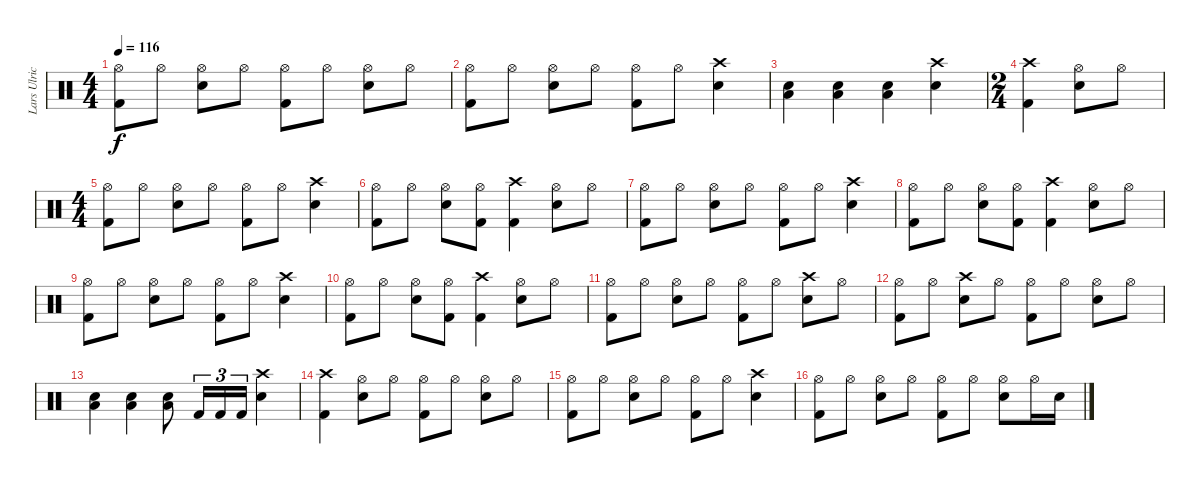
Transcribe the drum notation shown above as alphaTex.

\track ("Lars Ulrich" "Lars Ulric") {instrument percussion}
\staff {score}
\articulation defaults
\ts (4 4)
\tempo 116
\clef neutral
\ks c
("Hi-Hat (open)" "Kick (hit) 2").8{dy f} "Hi-Hat (open)".8 ("Hi-Hat (open)" "Electric Snare (hit)").8 "Hi-Hat (open)".8 ("Hi-Hat (open)" "Kick (hit) 2").8 "Hi-Hat (open)".8 ("Hi-Hat (open)" "Electric Snare (hit)").8 "Hi-Hat (open)".8 |
("Hi-Hat (open)" "Kick (hit) 2").8 "Hi-Hat (open)".8 ("Hi-Hat (open)" "Electric Snare (hit)").8 "Hi-Hat (open)".8 ("Hi-Hat (open)" "Kick (hit) 2").8 "Hi-Hat (open)".8 ("Crash high (hit)" "Electric Snare (hit)").4 |
("Electric Snare (hit)" "Low Floor Tom (hit)").4 ("Electric Snare (hit)" "Low Floor Tom (hit)").4 ("Electric Snare (hit)" "Low Floor Tom (hit)").4 ("Crash high (hit)" "Electric Snare (hit)").4 |
\ts (2 4)
("Crash high (hit)" "Kick (hit) 2").4 ("Hi-Hat (open)" "Electric Snare (hit)").8 "Hi-Hat (open)".8 |
\ts (4 4)
("Hi-Hat (open)" "Kick (hit) 2").8 "Hi-Hat (open)".8 ("Hi-Hat (open)" "Electric Snare (hit)").8 "Hi-Hat (open)".8 ("Hi-Hat (open)" "Kick (hit) 2").8 "Hi-Hat (open)".8 ("Crash high (hit)" "Electric Snare (hit)").4 |
("Hi-Hat (open)" "Kick (hit) 2").8 "Hi-Hat (open)".8 ("Hi-Hat (open)" "Electric Snare (hit)").8 ("Hi-Hat (open)" "Kick (hit) 2").8 ("Crash high (hit)" "Kick (hit) 2").4 ("Hi-Hat (open)" "Electric Snare (hit)").8 "Hi-Hat (open)".8 |
("Hi-Hat (open)" "Kick (hit) 2").8 "Hi-Hat (open)".8 ("Hi-Hat (open)" "Electric Snare (hit)").8 "Hi-Hat (open)".8 ("Hi-Hat (open)" "Kick (hit) 2").8 "Hi-Hat (open)".8 ("Crash high (hit)" "Electric Snare (hit)").4 |
("Hi-Hat (open)" "Kick (hit) 2").8 "Hi-Hat (open)".8 ("Hi-Hat (open)" "Electric Snare (hit)").8 ("Hi-Hat (open)" "Kick (hit) 2").8 ("Crash high (hit)" "Kick (hit) 2").4 ("Hi-Hat (open)" "Electric Snare (hit)").8 "Hi-Hat (open)".8 |
("Hi-Hat (open)" "Kick (hit) 2").8 "Hi-Hat (open)".8 ("Hi-Hat (open)" "Electric Snare (hit)").8 "Hi-Hat (open)".8 ("Hi-Hat (open)" "Kick (hit) 2").8 "Hi-Hat (open)".8 ("Crash high (hit)" "Electric Snare (hit)").4 |
("Hi-Hat (open)" "Kick (hit) 2").8 "Hi-Hat (open)".8 ("Hi-Hat (open)" "Electric Snare (hit)").8 ("Hi-Hat (open)" "Kick (hit) 2").8 ("Crash high (hit)" "Kick (hit) 2").4 ("Hi-Hat (open)" "Electric Snare (hit)").8 "Hi-Hat (open)".8 |
("Hi-Hat (open)" "Kick (hit) 2").8 "Hi-Hat (open)".8 ("Hi-Hat (open)" "Electric Snare (hit)").8 "Hi-Hat (open)".8 ("Hi-Hat (open)" "Kick (hit) 2").8 "Hi-Hat (open)".8 ("Crash high (hit)" "Electric Snare (hit)").8 "Hi-Hat (open)".8 |
("Hi-Hat (open)" "Kick (hit) 2").8 "Hi-Hat (open)".8 ("Crash high (hit)" "Electric Snare (hit)").8 "Hi-Hat (open)".8 ("Hi-Hat (open)" "Kick (hit) 2").8 "Hi-Hat (open)".8 ("Hi-Hat (open)" "Electric Snare (hit)").8 "Hi-Hat (open)".8 |
("Electric Snare (hit)" "Low Floor Tom (hit)").4 ("Electric Snare (hit)" "Low Floor Tom (hit)").4 ("Electric Snare (hit)" "Low Floor Tom (hit)").8 "Kick (hit) 2".16{tu (3 2)} "Kick (hit) 2".16{tu (3 2)} "Kick (hit) 2".16{tu (3 2)} ("Crash high (hit)" "Electric Snare (hit)").4 |
("Crash high (hit)" "Kick (hit) 2").4 ("Hi-Hat (open)" "Electric Snare (hit)").8 "Hi-Hat (open)".8 ("Hi-Hat (open)" "Kick (hit) 2").8 "Hi-Hat (open)".8 ("Hi-Hat (open)" "Electric Snare (hit)").8 "Hi-Hat (open)".8 |
("Hi-Hat (open)" "Kick (hit) 2").8 "Hi-Hat (open)".8 ("Hi-Hat (open)" "Electric Snare (hit)").8 "Hi-Hat (open)".8 ("Hi-Hat (open)" "Kick (hit) 2").8 "Hi-Hat (open)".8 ("Crash high (hit)" "Electric Snare (hit)").4 |
("Hi-Hat (open)" "Kick (hit) 2").8 "Hi-Hat (open)".8 ("Hi-Hat (open)" "Electric Snare (hit)").8 "Hi-Hat (open)".8 ("Hi-Hat (open)" "Kick (hit) 2").8 "Hi-Hat (open)".8 ("Hi-Hat (open)" "Electric Snare (hit)").8 "Hi-Hat (open)".16 "Electric Snare (hit)".16
